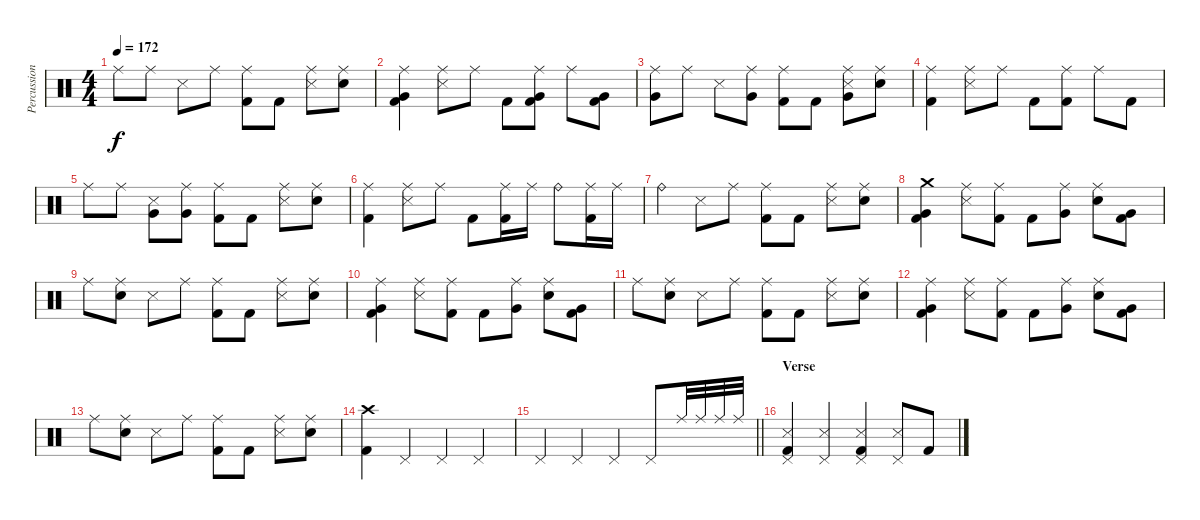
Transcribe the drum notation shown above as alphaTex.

\track ("Percussion" "Percussion") {instrument percussion}
\staff {score}
\articulation defaults
\ts (4 4)
\tempo 172
\clef neutral
\ks aminor "Ride (middle)".8{dy f} "Ride (middle)".8 "Snare (side stick) 3".8 "Ride (middle)".8
("Ride (middle)" "Kick (hit) 2").8 "Kick (hit) 2".8 ("Ride (middle)" "Snare (side stick) 3").8 ("Ride (middle)" "Electric Snare (hit)").8 |
("Ride (middle)" "Very Low Tom (hit)" "Kick (hit) 2").4 ("Ride (middle)" "Snare (side stick) 3").8 "Ride (middle)".8 "Kick (hit) 2".8 ("Ride (middle)" "Very Low Tom (hit)" "Kick (hit) 2").8 "Ride (middle)".8 ("Very Low Tom (hit)" "Kick (hit) 2").8 |
("Ride (middle)" "Very Low Tom (hit)").8 "Ride (middle)".8 "Snare (side stick) 3".8 ("Ride (middle)" "Very Low Tom (hit)").8 ("Ride (middle)" "Kick (hit) 2").8 "Kick (hit) 2".8 ("Ride (middle)" "Snare (side stick) 3" "Very Low Tom (hit)").8 ("Ride (middle)" "Electric Snare (hit)").8 |
("Ride (middle)" "Kick (hit) 2").4 ("Ride (middle)" "Snare (side stick) 3").8 "Ride (middle)".8 "Kick (hit) 2".8 ("Ride (middle)" "Kick (hit) 2").8 "Ride (middle)".8 "Kick (hit) 2".8 |
"Ride (middle)".8 "Ride (middle)".8 ("Snare (side stick) 3" "Very Low Tom (hit)").8 ("Ride (middle)" "Very Low Tom (hit)").8 ("Ride (middle)" "Kick (hit) 2").8 "Kick (hit) 2".8 ("Ride (middle)" "Snare (side stick) 3").8 ("Ride (middle)" "Electric Snare (hit)").8 |
("Ride (middle)" "Kick (hit) 2").4 ("Ride (middle)" "Snare (side stick) 3").8 "Ride (middle)".8 "Kick (hit) 2".8 ("Ride (middle)" "Kick (hit) 2").16 "Ride (middle)".16 "Ride (bell)".8 ("Ride (middle)" "Kick (hit) 2").16 "Ride (middle)".16 |
"Ride (bell)".4 "Snare (side stick) 3".8 "Ride (middle)".8 ("Ride (middle)" "Kick (hit) 2").8 "Kick (hit) 2".8 ("Ride (middle)" "Snare (side stick) 3").8 ("Ride (middle)" "Electric Snare (hit)").8 |
("Crash medium (hit)" "Very Low Tom (hit)" "Kick (hit) 2").4 ("Ride (middle)" "Snare (side stick) 3").8 ("Ride (middle)" "Kick (hit) 2").8 "Kick (hit) 2".8 ("Ride (middle)" "Very Low Tom (hit)").8 ("Ride (middle)" "Electric Snare (hit)").8 ("Very Low Tom (hit)" "Kick (hit) 2").8 |
"Ride (middle)".8 ("Ride (middle)" "Electric Snare (hit)").8 "Snare (side stick) 3".8 "Ride (middle)".8 ("Ride (middle)" "Kick (hit) 2").8 "Kick (hit) 2".8 ("Ride (middle)" "Snare (side stick) 3").8 ("Ride (middle)" "Electric Snare (hit)").8 |
("Ride (middle)" "Very Low Tom (hit)" "Kick (hit) 2").4 ("Ride (middle)" "Snare (side stick) 3").8 ("Ride (middle)" "Kick (hit) 2").8 "Kick (hit) 2".8 ("Ride (middle)" "Very Low Tom (hit)").8 ("Ride (middle)" "Electric Snare (hit)").8 ("Very Low Tom (hit)" "Kick (hit) 2").8 |
"Ride (middle)".8 ("Ride (middle)" "Electric Snare (hit)").8 "Snare (side stick) 3".8 "Ride (middle)".8 ("Ride (middle)" "Kick (hit) 2").8 "Kick (hit) 2".8 ("Ride (middle)" "Snare (side stick) 3").8 ("Ride (middle)" "Electric Snare (hit)").8 |
("Ride (middle)" "Very Low Tom (hit)" "Kick (hit) 2").4 ("Ride (middle)" "Snare (side stick) 3").8 ("Ride (middle)" "Kick (hit) 2").8 "Kick (hit) 2".8 ("Ride (middle)" "Very Low Tom (hit)").8 ("Ride (middle)" "Electric Snare (hit)").8 ("Very Low Tom (hit)" "Kick (hit) 2").8 |
"Ride (middle)".8 ("Ride (middle)" "Electric Snare (hit)").8 "Snare (side stick) 3".8 "Ride (middle)".8 ("Ride (middle)" "Kick (hit) 2").8 "Kick (hit) 2".8 ("Ride (middle)" "Snare (side stick) 3").8 ("Ride (middle)" "Electric Snare (hit)").8 |
("Crash high (hit)" "Kick (hit) 2").4 "Pedal Hi-Hat (hit)".4 "Pedal Hi-Hat (hit)".4 "Pedal Hi-Hat (hit)".4 |
\barLineRight lightlight "Pedal Hi-Hat (hit)".4 "Pedal Hi-Hat (hit)".4 "Pedal Hi-Hat (hit)".4 "Pedal Hi-Hat (hit)".8 "Ride (middle)".32 "Ride (middle)".32 "Ride (middle)".32 "Ride (middle)".32
|
\section ("" "Verse")
("Pedal Hi-Hat (hit)" "Snare (side stick) 3" "Kick (hit) 2").4 ("Pedal Hi-Hat (hit)" "Snare (side stick) 3").4 ("Pedal Hi-Hat (hit)" "Snare (side stick) 3" "Kick (hit) 2").4 ("Pedal Hi-Hat (hit)" "Snare (side stick) 3").8 "Kick (hit) 2".8
